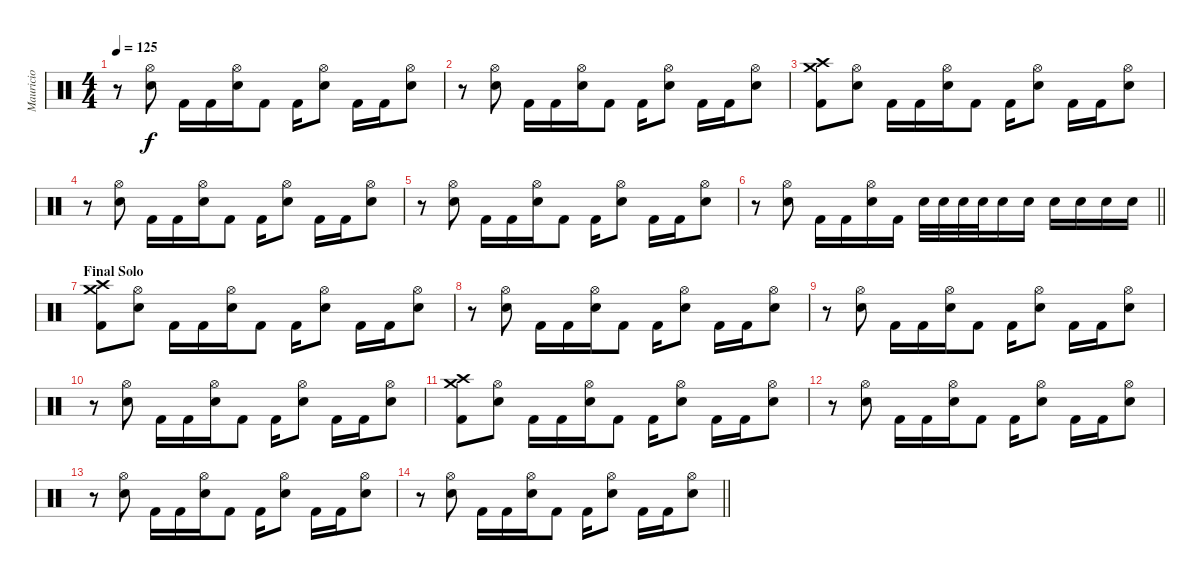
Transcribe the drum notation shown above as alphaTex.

\track ("Mauricio" "Mauricio") {instrument percussion}
\staff {score}
\articulation defaults
\ts (4 4)
\tempo 125
\clef neutral
\ks c
r.8{dy f} ("Hi-Hat (open)" "Electric Snare (hit)").8 "Kick (hit) 2".16 "Kick (hit) 2".16 ("Hi-Hat (open)" "Electric Snare (hit)").16 "Kick (hit) 2".8 "Kick (hit) 2".16 ("Hi-Hat (open)" "Electric Snare (hit)").8 "Kick (hit) 2".16 "Kick (hit) 2".16 ("Hi-Hat (open)" "Electric Snare (hit)").8 |
r.8 ("Hi-Hat (open)" "Electric Snare (hit)").8 "Kick (hit) 2".16 "Kick (hit) 2".16 ("Hi-Hat (open)" "Electric Snare (hit)").16 "Kick (hit) 2".8 "Kick (hit) 2".16 ("Hi-Hat (open)" "Electric Snare (hit)").8 "Kick (hit) 2".16 "Kick (hit) 2".16 ("Hi-Hat (open)" "Electric Snare (hit)").8 |
("Crash medium (hit)" "Crash high (hit)" "Kick (hit) 2").8 ("Hi-Hat (open)" "Electric Snare (hit)").8 "Kick (hit) 2".16 "Kick (hit) 2".16 ("Hi-Hat (open)" "Electric Snare (hit)").16 "Kick (hit) 2".8 "Kick (hit) 2".16 ("Hi-Hat (open)" "Electric Snare (hit)").8 "Kick (hit) 2".16 "Kick (hit) 2".16 ("Hi-Hat (open)" "Electric Snare (hit)").8 |
r.8 ("Hi-Hat (open)" "Electric Snare (hit)").8 "Kick (hit) 2".16 "Kick (hit) 2".16 ("Hi-Hat (open)" "Electric Snare (hit)").16 "Kick (hit) 2".8 "Kick (hit) 2".16 ("Hi-Hat (open)" "Electric Snare (hit)").8 "Kick (hit) 2".16 "Kick (hit) 2".16 ("Hi-Hat (open)" "Electric Snare (hit)").8 |
r.8 ("Hi-Hat (open)" "Electric Snare (hit)").8 "Kick (hit) 2".16 "Kick (hit) 2".16 ("Hi-Hat (open)" "Electric Snare (hit)").16 "Kick (hit) 2".8 "Kick (hit) 2".16 ("Hi-Hat (open)" "Electric Snare (hit)").8 "Kick (hit) 2".16 "Kick (hit) 2".16 ("Hi-Hat (open)" "Electric Snare (hit)").8 |
\barLineRight lightlight
r.8 ("Hi-Hat (open)" "Electric Snare (hit)").8 "Kick (hit) 2".16 "Kick (hit) 2".16 ("Hi-Hat (open)" "Electric Snare (hit)").16 "Kick (hit) 2".16 "Electric Snare (hit)".32 "Electric Snare (hit)".32 "Electric Snare (hit)".32 "Electric Snare (hit)".32 "Electric Snare (hit)".16 "Electric Snare (hit)".16 "Electric Snare (hit)".16 "Electric Snare (hit)".16 "Electric Snare (hit)".16 "Electric Snare (hit)".16 |
\section ("" "Final Solo")
("Crash medium (hit)" "Crash high (hit)" "Kick (hit) 2").8{volume 8} ("Hi-Hat (open)" "Electric Snare (hit)").8 "Kick (hit) 2".16 "Kick (hit) 2".16 ("Hi-Hat (open)" "Electric Snare (hit)").16 "Kick (hit) 2".8 "Kick (hit) 2".16 ("Hi-Hat (open)" "Electric Snare (hit)").8 "Kick (hit) 2".16 "Kick (hit) 2".16 ("Hi-Hat (open)" "Electric Snare (hit)").8 |
r.8 ("Hi-Hat (open)" "Electric Snare (hit)").8 "Kick (hit) 2".16 "Kick (hit) 2".16 ("Hi-Hat (open)" "Electric Snare (hit)").16 "Kick (hit) 2".8 "Kick (hit) 2".16 ("Hi-Hat (open)" "Electric Snare (hit)").8 "Kick (hit) 2".16 "Kick (hit) 2".16 ("Hi-Hat (open)" "Electric Snare (hit)").8 |
r.8 ("Hi-Hat (open)" "Electric Snare (hit)").8 "Kick (hit) 2".16 "Kick (hit) 2".16 ("Hi-Hat (open)" "Electric Snare (hit)").16 "Kick (hit) 2".8 "Kick (hit) 2".16 ("Hi-Hat (open)" "Electric Snare (hit)").8 "Kick (hit) 2".16 "Kick (hit) 2".16 ("Hi-Hat (open)" "Electric Snare (hit)").8 |
r.8 ("Hi-Hat (open)" "Electric Snare (hit)").8 "Kick (hit) 2".16 "Kick (hit) 2".16 ("Hi-Hat (open)" "Electric Snare (hit)").16 "Kick (hit) 2".8 "Kick (hit) 2".16 ("Hi-Hat (open)" "Electric Snare (hit)").8 "Kick (hit) 2".16 "Kick (hit) 2".16 ("Hi-Hat (open)" "Electric Snare (hit)").8 |
("Crash medium (hit)" "Crash high (hit)" "Kick (hit) 2").8{volume 0} ("Hi-Hat (open)" "Electric Snare (hit)").8 "Kick (hit) 2".16 "Kick (hit) 2".16 ("Hi-Hat (open)" "Electric Snare (hit)").16 "Kick (hit) 2".8 "Kick (hit) 2".16 ("Hi-Hat (open)" "Electric Snare (hit)").8 "Kick (hit) 2".16 "Kick (hit) 2".16 ("Hi-Hat (open)" "Electric Snare (hit)").8 |
r.8 ("Hi-Hat (open)" "Electric Snare (hit)").8 "Kick (hit) 2".16 "Kick (hit) 2".16 ("Hi-Hat (open)" "Electric Snare (hit)").16 "Kick (hit) 2".8 "Kick (hit) 2".16 ("Hi-Hat (open)" "Electric Snare (hit)").8 "Kick (hit) 2".16 "Kick (hit) 2".16 ("Hi-Hat (open)" "Electric Snare (hit)").8 |
r.8 ("Hi-Hat (open)" "Electric Snare (hit)").8 "Kick (hit) 2".16 "Kick (hit) 2".16 ("Hi-Hat (open)" "Electric Snare (hit)").16 "Kick (hit) 2".8 "Kick (hit) 2".16 ("Hi-Hat (open)" "Electric Snare (hit)").8 "Kick (hit) 2".16 "Kick (hit) 2".16 ("Hi-Hat (open)" "Electric Snare (hit)").8 |
\barLineRight lightlight
r.8 ("Hi-Hat (open)" "Electric Snare (hit)").8 "Kick (hit) 2".16 "Kick (hit) 2".16 ("Hi-Hat (open)" "Electric Snare (hit)").16 "Kick (hit) 2".8 "Kick (hit) 2".16 ("Hi-Hat (open)" "Electric Snare (hit)").8 "Kick (hit) 2".16 "Kick (hit) 2".16 ("Hi-Hat (open)" "Electric Snare (hit)").8
